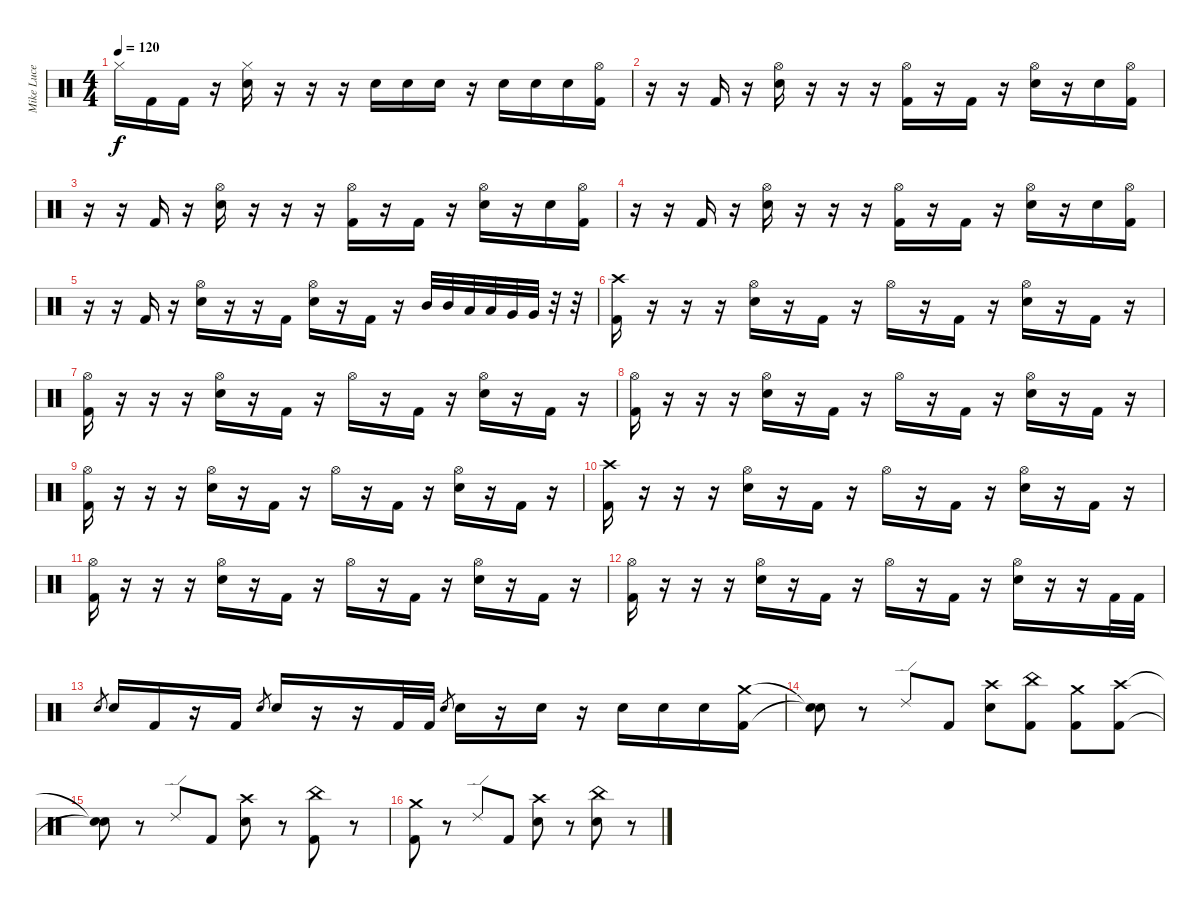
\track ("Mike Luce" "Mike Luce") {instrument percussion}
\staff {score}
\articulation defaults
\ts (4 4)
\tempo 120
\clef neutral
\ks c "Hi-Hat (closed)".16{dy f} "Kick (hit) 2".16 "Kick (hit) 2".16
r.16 ("Hi-Hat (closed)" "Electric Snare (hit)").16 r.16 r.16 r.16 "Electric Snare (hit)".16 "Electric Snare (hit)".16 "Electric Snare (hit)".16 r.16 "Electric Snare (hit)".16 "Electric Snare (hit)".16 "Electric Snare (hit)".16 ("Hi-Hat (open)" "Kick (hit) 2").16 |
r.16 r.16 "Kick (hit) 2".16 r.16 ("Hi-Hat (open)" "Electric Snare (hit)").16 r.16 r.16 r.16 ("Hi-Hat (open)" "Kick (hit) 2").16 r.16 "Kick (hit) 2".16 r.16 ("Hi-Hat (open)" "Electric Snare (hit)").16 r.16 "Electric Snare (hit)".16 ("Hi-Hat (open)" "Kick (hit) 2").16 |
r.16 r.16 "Kick (hit) 2".16 r.16 ("Hi-Hat (open)" "Electric Snare (hit)").16 r.16 r.16 r.16 ("Hi-Hat (open)" "Kick (hit) 2").16 r.16 "Kick (hit) 2".16 r.16 ("Hi-Hat (open)" "Electric Snare (hit)").16 r.16 "Electric Snare (hit)".16 ("Hi-Hat (open)" "Kick (hit) 2").16 |
r.16 r.16 "Kick (hit) 2".16 r.16 ("Hi-Hat (open)" "Electric Snare (hit)").16 r.16 r.16 r.16 ("Hi-Hat (open)" "Kick (hit) 2").16 r.16 "Kick (hit) 2".16 r.16 ("Hi-Hat (open)" "Electric Snare (hit)").16 r.16 "Electric Snare (hit)".16 ("Hi-Hat (open)" "Kick (hit) 2").16 |
r.16 r.16 "Kick (hit) 2".16 r.16 ("Hi-Hat (open)" "Electric Snare (hit)").16 r.16 r.16 "Kick (hit) 2".16 ("Hi-Hat (open)" "Electric Snare (hit)").16 r.16 "Kick (hit) 2".16 r.16 "Mid Tom (hit)".32 "Mid Tom (hit)".32 "Low Tom (hit)".32 "Low Tom (hit)".32 "Very Low Tom (hit)".32 "Very Low Tom (hit)".32 r.32 r.32 |
("Crash high (hit)" "Kick (hit) 2").16 r.16 r.16 r.16 ("Hi-Hat (open)" "Electric Snare (hit)").16 r.16 "Kick (hit) 2".16 r.16 "Hi-Hat (open)".16 r.16 "Kick (hit) 2".16 r.16 ("Hi-Hat (open)" "Electric Snare (hit)").16 r.16 "Kick (hit) 2".16 r.16 |
("Hi-Hat (open)" "Kick (hit) 2").16 r.16 r.16 r.16 ("Hi-Hat (open)" "Electric Snare (hit)").16 r.16 "Kick (hit) 2".16 r.16 "Hi-Hat (open)".16 r.16 "Kick (hit) 2".16 r.16 ("Hi-Hat (open)" "Electric Snare (hit)").16 r.16 "Kick (hit) 2".16 r.16 |
("Hi-Hat (open)" "Kick (hit) 2").16 r.16 r.16 r.16 ("Hi-Hat (open)" "Electric Snare (hit)").16 r.16 "Kick (hit) 2".16 r.16 "Hi-Hat (open)".16 r.16 "Kick (hit) 2".16 r.16 ("Hi-Hat (open)" "Electric Snare (hit)").16 r.16 "Kick (hit) 2".16 r.16 |
("Hi-Hat (open)" "Kick (hit) 2").16 r.16 r.16 r.16 ("Hi-Hat (open)" "Electric Snare (hit)").16 r.16 "Kick (hit) 2".16 r.16 "Hi-Hat (open)".16 r.16 "Kick (hit) 2".16 r.16 ("Hi-Hat (open)" "Electric Snare (hit)").16 r.16 "Kick (hit) 2".16 r.16 |
("Crash high (hit)" "Kick (hit) 2").16 r.16 r.16 r.16 ("Hi-Hat (open)" "Electric Snare (hit)").16 r.16 "Kick (hit) 2".16 r.16 "Hi-Hat (open)".16 r.16 "Kick (hit) 2".16 r.16 ("Hi-Hat (open)" "Electric Snare (hit)").16 r.16 "Kick (hit) 2".16 r.16 |
("Hi-Hat (open)" "Kick (hit) 2").16 r.16 r.16 r.16 ("Hi-Hat (open)" "Electric Snare (hit)").16 r.16 "Kick (hit) 2".16 r.16 "Hi-Hat (open)".16 r.16 "Kick (hit) 2".16 r.16 ("Hi-Hat (open)" "Electric Snare (hit)").16 r.16 "Kick (hit) 2".16 r.16 |
("Hi-Hat (open)" "Kick (hit) 2").16 r.16 r.16 r.16 ("Hi-Hat (open)" "Electric Snare (hit)").16 r.16 "Kick (hit) 2".16 r.16 "Hi-Hat (open)".16 r.16 "Kick (hit) 2".16 r.16 ("Hi-Hat (open)" "Electric Snare (hit)").16 r.16 r.16 "Kick (hit) 2".32 "Kick (hit) 2".32 |
"Electric Snare (hit)".8{gr} "Electric Snare (hit)".16 "Kick (hit) 2".16 r.16 "Kick (hit) 2".16 "Electric Snare (hit)".8{gr} "Electric Snare (hit)".16 r.16 r.16 "Kick (hit) 2".32 "Kick (hit) 2".32 "Electric Snare (hit)".8{gr} "Electric Snare (hit)".16 r.16 "Electric Snare (hit)".16 r.16 "Electric Snare (hit)".16 "Electric Snare (hit)".16 "Electric Snare (hit)".16 ("Crash medium (hit)" "Kick (hit) 2").16 |
("Snare (hit)"{t} "Snare (hit)"{t}).8 r.8 "Ride (edge) 2".8 "Kick (hit) 2".8 ("Crash high (hit)" "Electric Snare (hit)").8 ("China (hit)" "Kick (hit) 2").8 ("Crash medium (hit)" "Kick (hit) 2").8 ("Crash high (hit)" "Kick (hit) 2").8 |
("Snare (hit)"{t} "Snare (hit)"{t}).8 r.8 "Ride (edge) 2".8 "Kick (hit) 2".8 ("Crash high (hit)" "Electric Snare (hit)").8 r.8 ("China (hit)" "Kick (hit) 2").8 r.8 |
("Crash medium (hit)" "Kick (hit) 2").8 r.8 "Ride (edge) 2".8 "Kick (hit) 2".8 ("Crash high (hit)" "Electric Snare (hit)").8 r.8 ("China (hit)" "Electric Snare (hit)").8 r.8
